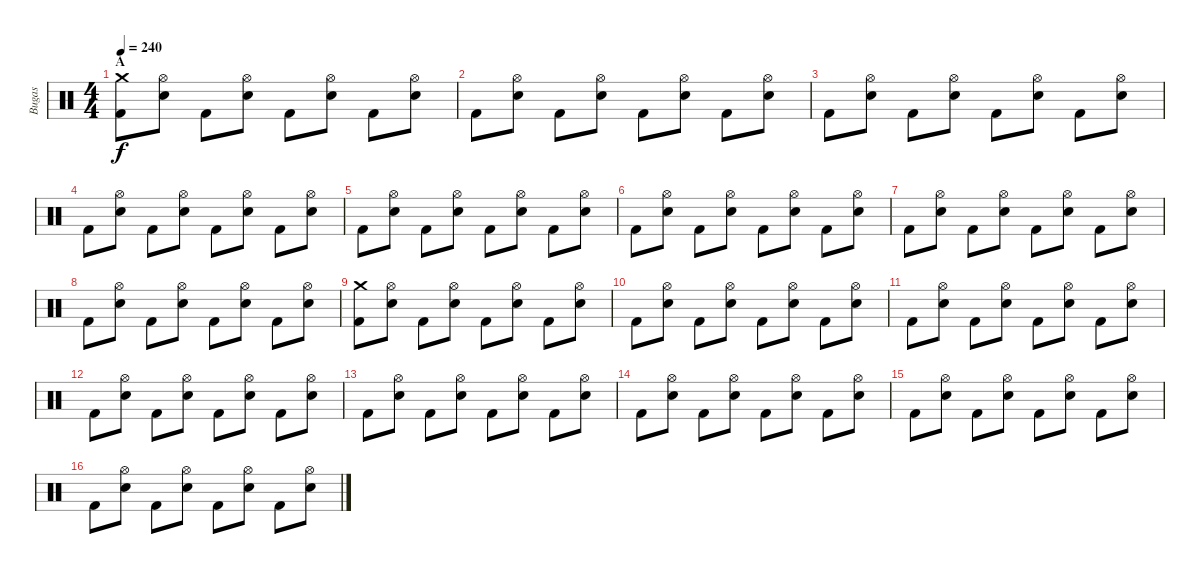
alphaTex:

\track ("Bugas" "Bugas") {instrument percussion}
\staff {score}
\articulation defaults
\ts (4 4)
\section ("" "A")
\tempo 240
\clef neutral
\ks c
("Crash medium (hit)" "Kick (hit) 2").8{dy f} ("Hi-Hat (open)" "Electric Snare (hit)").8 "Kick (hit) 2".8 ("Hi-Hat (open)" "Electric Snare (hit)").8 "Kick (hit) 2".8 ("Hi-Hat (open)" "Electric Snare (hit)").8 "Kick (hit) 2".8 ("Hi-Hat (open)" "Electric Snare (hit)").8 |
"Kick (hit) 2".8 ("Hi-Hat (open)" "Electric Snare (hit)").8 "Kick (hit) 2".8 ("Hi-Hat (open)" "Electric Snare (hit)").8 "Kick (hit) 2".8 ("Hi-Hat (open)" "Electric Snare (hit)").8 "Kick (hit) 2".8 ("Hi-Hat (open)" "Electric Snare (hit)").8 |
"Kick (hit) 2".8 ("Hi-Hat (open)" "Electric Snare (hit)").8 "Kick (hit) 2".8 ("Hi-Hat (open)" "Electric Snare (hit)").8 "Kick (hit) 2".8 ("Hi-Hat (open)" "Electric Snare (hit)").8 "Kick (hit) 2".8 ("Hi-Hat (open)" "Electric Snare (hit)").8 |
"Kick (hit) 2".8 ("Hi-Hat (open)" "Electric Snare (hit)").8 "Kick (hit) 2".8 ("Hi-Hat (open)" "Electric Snare (hit)").8 "Kick (hit) 2".8 ("Hi-Hat (open)" "Electric Snare (hit)").8 "Kick (hit) 2".8 ("Hi-Hat (open)" "Electric Snare (hit)").8 |
"Kick (hit) 2".8 ("Hi-Hat (open)" "Electric Snare (hit)").8 "Kick (hit) 2".8 ("Hi-Hat (open)" "Electric Snare (hit)").8 "Kick (hit) 2".8 ("Hi-Hat (open)" "Electric Snare (hit)").8 "Kick (hit) 2".8 ("Hi-Hat (open)" "Electric Snare (hit)").8 |
"Kick (hit) 2".8 ("Hi-Hat (open)" "Electric Snare (hit)").8 "Kick (hit) 2".8 ("Hi-Hat (open)" "Electric Snare (hit)").8 "Kick (hit) 2".8 ("Hi-Hat (open)" "Electric Snare (hit)").8 "Kick (hit) 2".8 ("Hi-Hat (open)" "Electric Snare (hit)").8 |
"Kick (hit) 2".8 ("Hi-Hat (open)" "Electric Snare (hit)").8 "Kick (hit) 2".8 ("Hi-Hat (open)" "Electric Snare (hit)").8 "Kick (hit) 2".8 ("Hi-Hat (open)" "Electric Snare (hit)").8 "Kick (hit) 2".8 ("Hi-Hat (open)" "Electric Snare (hit)").8 |
"Kick (hit) 2".8 ("Hi-Hat (open)" "Electric Snare (hit)").8 "Kick (hit) 2".8 ("Hi-Hat (open)" "Electric Snare (hit)").8 "Kick (hit) 2".8 ("Hi-Hat (open)" "Electric Snare (hit)").8 "Kick (hit) 2".8 ("Hi-Hat (open)" "Electric Snare (hit)").8 |
("Crash medium (hit)" "Kick (hit) 2").8 ("Hi-Hat (open)" "Electric Snare (hit)").8 "Kick (hit) 2".8 ("Hi-Hat (open)" "Electric Snare (hit)").8 "Kick (hit) 2".8 ("Hi-Hat (open)" "Electric Snare (hit)").8 "Kick (hit) 2".8 ("Hi-Hat (open)" "Electric Snare (hit)").8 |
"Kick (hit) 2".8 ("Hi-Hat (open)" "Electric Snare (hit)").8 "Kick (hit) 2".8 ("Hi-Hat (open)" "Electric Snare (hit)").8 "Kick (hit) 2".8 ("Hi-Hat (open)" "Electric Snare (hit)").8 "Kick (hit) 2".8 ("Hi-Hat (open)" "Electric Snare (hit)").8 |
"Kick (hit) 2".8 ("Hi-Hat (open)" "Electric Snare (hit)").8 "Kick (hit) 2".8 ("Hi-Hat (open)" "Electric Snare (hit)").8 "Kick (hit) 2".8 ("Hi-Hat (open)" "Electric Snare (hit)").8 "Kick (hit) 2".8 ("Hi-Hat (open)" "Electric Snare (hit)").8 |
"Kick (hit) 2".8 ("Hi-Hat (open)" "Electric Snare (hit)").8 "Kick (hit) 2".8 ("Hi-Hat (open)" "Electric Snare (hit)").8 "Kick (hit) 2".8 ("Hi-Hat (open)" "Electric Snare (hit)").8 "Kick (hit) 2".8 ("Hi-Hat (open)" "Electric Snare (hit)").8 |
"Kick (hit) 2".8 ("Hi-Hat (open)" "Electric Snare (hit)").8 "Kick (hit) 2".8 ("Hi-Hat (open)" "Electric Snare (hit)").8 "Kick (hit) 2".8 ("Hi-Hat (open)" "Electric Snare (hit)").8 "Kick (hit) 2".8 ("Hi-Hat (open)" "Electric Snare (hit)").8 |
"Kick (hit) 2".8 ("Hi-Hat (open)" "Electric Snare (hit)").8 "Kick (hit) 2".8 ("Hi-Hat (open)" "Electric Snare (hit)").8 "Kick (hit) 2".8 ("Hi-Hat (open)" "Electric Snare (hit)").8 "Kick (hit) 2".8 ("Hi-Hat (open)" "Electric Snare (hit)").8 |
"Kick (hit) 2".8 ("Hi-Hat (open)" "Electric Snare (hit)").8 "Kick (hit) 2".8 ("Hi-Hat (open)" "Electric Snare (hit)").8 "Kick (hit) 2".8 ("Hi-Hat (open)" "Electric Snare (hit)").8 "Kick (hit) 2".8 ("Hi-Hat (open)" "Electric Snare (hit)").8 |
"Kick (hit) 2".8 ("Hi-Hat (open)" "Electric Snare (hit)").8 "Kick (hit) 2".8 ("Hi-Hat (open)" "Electric Snare (hit)").8 "Kick (hit) 2".8 ("Hi-Hat (open)" "Electric Snare (hit)").8 "Kick (hit) 2".8 ("Hi-Hat (open)" "Electric Snare (hit)").8
